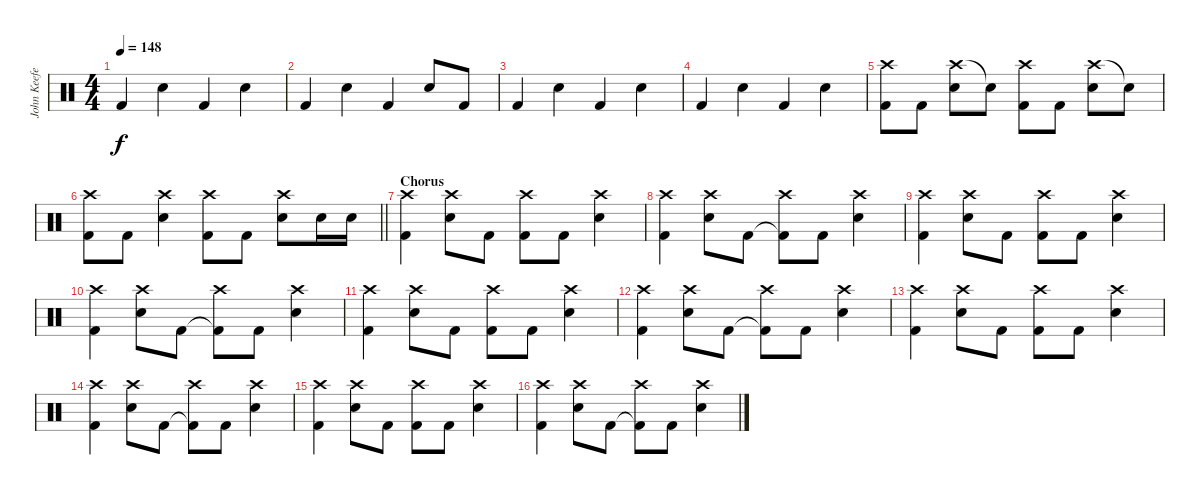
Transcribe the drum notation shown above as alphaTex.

\track ("John Keefe (Percussion)" "John Keefe") {instrument percussion}
\staff {score}
\articulation defaults
\ts (4 4)
\tempo 148
\clef neutral
\ks c "Kick (hit) 2".4{dy f} "Snare (hit) 2".4 "Kick (hit) 2".4 "Snare (hit) 2".4
|
"Kick (hit) 2".4 "Snare (hit) 2".4 "Kick (hit) 2".4 "Snare (hit) 2".8 "Kick (hit) 2".8 |
"Kick (hit) 2".4 "Snare (hit) 2".4 "Kick (hit) 2".4 "Snare (hit) 2".4 |
"Kick (hit) 2".4 "Snare (hit) 2".4 "Kick (hit) 2".4 "Snare (hit) 2".4 |
("Crash high (hit)" "Kick (hit) 2").8 "Kick (hit) 2".8 ("Crash high (hit)" "Snare (hit) 2").8 "Snare (hit) 2"{t}.8 ("Crash high (hit)" "Kick (hit) 2").8 "Kick (hit) 2".8 ("Crash high (hit)" "Snare (hit) 2").8 "Snare (hit) 2"{t}.8 |
\barLineRight lightlight
("Crash high (hit)" "Kick (hit) 2").8 "Kick (hit) 2".8 ("Crash high (hit)" "Snare (hit) 2").4 ("Crash high (hit)" "Kick (hit) 2").8 "Kick (hit) 2".8 ("Crash high (hit)" "Snare (hit) 2").8 "Snare (hit) 2".16 "Snare (hit) 2".16 |
\section ("" "Chorus")
("Crash high (hit)" "Kick (hit) 2").4 ("Snare (hit) 2" "Crash high (hit)").8 "Kick (hit) 2".8 ("Kick (hit) 2" "Crash high (hit)").8 "Kick (hit) 2".8 ("Snare (hit) 2" "Crash high (hit)").4 |
("Kick (hit) 2" "Crash high (hit)").4 ("Snare (hit) 2" "Crash high (hit)").8 "Kick (hit) 2".8 ("Kick (hit) 2"{t} "Crash high (hit)").8 "Kick (hit) 2".8 ("Snare (hit) 2" "Crash high (hit)").4 |
("Crash high (hit)" "Kick (hit) 2").4 ("Snare (hit) 2" "Crash high (hit)").8 "Kick (hit) 2".8 ("Kick (hit) 2" "Crash high (hit)").8 "Kick (hit) 2".8 ("Snare (hit) 2" "Crash high (hit)").4 |
("Kick (hit) 2" "Crash high (hit)").4 ("Snare (hit) 2" "Crash high (hit)").8 "Kick (hit) 2".8 ("Kick (hit) 2"{t} "Crash high (hit)").8 "Kick (hit) 2".8 ("Snare (hit) 2" "Crash high (hit)").4 |
("Crash high (hit)" "Kick (hit) 2").4 ("Snare (hit) 2" "Crash high (hit)").8 "Kick (hit) 2".8 ("Kick (hit) 2" "Crash high (hit)").8 "Kick (hit) 2".8 ("Snare (hit) 2" "Crash high (hit)").4 |
("Kick (hit) 2" "Crash high (hit)").4 ("Snare (hit) 2" "Crash high (hit)").8 "Kick (hit) 2".8 ("Kick (hit) 2"{t} "Crash high (hit)").8 "Kick (hit) 2".8 ("Snare (hit) 2" "Crash high (hit)").4 |
("Crash high (hit)" "Kick (hit) 2").4 ("Snare (hit) 2" "Crash high (hit)").8 "Kick (hit) 2".8 ("Kick (hit) 2" "Crash high (hit)").8 "Kick (hit) 2".8 ("Snare (hit) 2" "Crash high (hit)").4 |
("Kick (hit) 2" "Crash high (hit)").4 ("Snare (hit) 2" "Crash high (hit)").8 "Kick (hit) 2".8 ("Kick (hit) 2"{t} "Crash high (hit)").8 "Kick (hit) 2".8 ("Snare (hit) 2" "Crash high (hit)").4 |
("Crash high (hit)" "Kick (hit) 2").4 ("Snare (hit) 2" "Crash high (hit)").8 "Kick (hit) 2".8 ("Kick (hit) 2" "Crash high (hit)").8 "Kick (hit) 2".8 ("Snare (hit) 2" "Crash high (hit)").4 |
("Kick (hit) 2" "Crash high (hit)").4 ("Snare (hit) 2" "Crash high (hit)").8 "Kick (hit) 2".8 ("Kick (hit) 2"{t} "Crash high (hit)").8 "Kick (hit) 2".8 ("Snare (hit) 2" "Crash high (hit)").4
